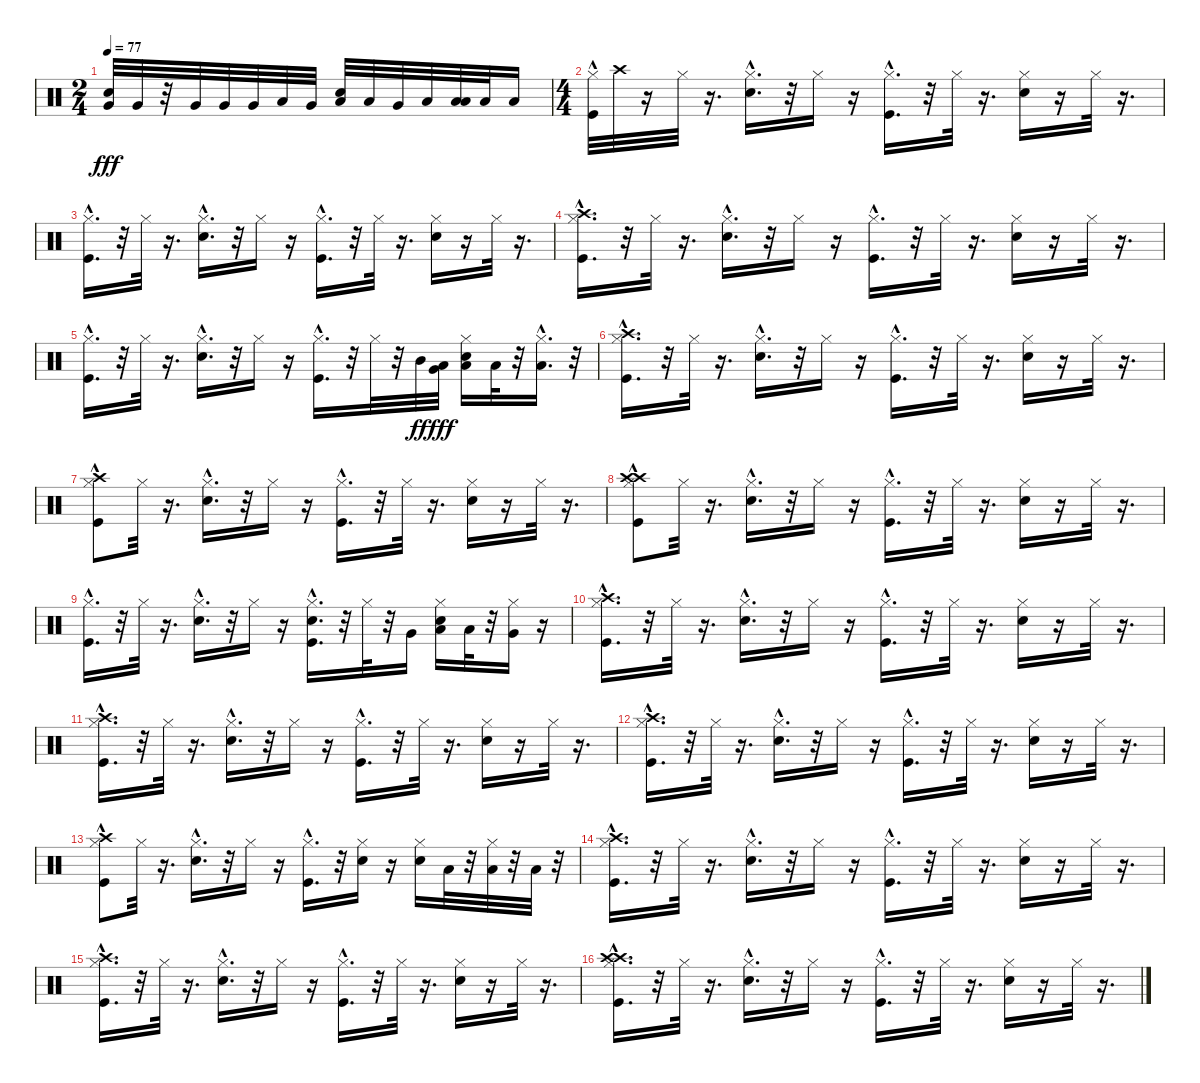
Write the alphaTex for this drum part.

\track "" {instrument percussion}
\staff {score}
\articulation defaults
\ts (2 4)
\tempo 77
\clef neutral
\ks c
("Electric Snare (hit)" "Very Low Tom (hit)").32{dy fff} "Very Low Tom (hit)".32 r.32 "Very Low Tom (hit)".32 "Very Low Tom (hit)".32 "Very Low Tom (hit)".32 "Low Floor Tom (hit)".32 "Very Low Tom (hit)".32 ("Low Floor Tom (hit)" "Electric Snare (hit)").32 "Low Floor Tom (hit)".32 "Very Low Tom (hit)".32 "Low Floor Tom (hit)".32 ("Low Floor Tom (hit)" "Low Floor Tom (hit)").32 "Low Floor Tom (hit)".32 "Low Floor Tom (hit)".16 |
\ts (4 4)
("Kick (hit)"{hac} "Hi-Hat (closed)").32 "Crash high (hit)".32 r.16 "Hi-Hat (closed)".32 r.16{d} ("Snare (hit) 2"{hac} "Hi-Hat (closed)").16{d} r.32 "Hi-Hat (closed)".16 r.16 ("Kick (hit)"{hac} "Hi-Hat (closed)").16{d} r.32 "Hi-Hat (closed)".32 r.16{d} ("Snare (hit) 2" "Hi-Hat (closed)").16 r.16 "Hi-Hat (closed)".32 r.16{d} |
("Kick (hit)"{hac} "Hi-Hat (closed)").16{d} r.32 "Hi-Hat (closed)".32 r.16{d} ("Snare (hit) 2"{hac} "Hi-Hat (closed)").16{d} r.32 "Hi-Hat (closed)".16 r.16 ("Kick (hit)"{hac} "Hi-Hat (closed)").16{d} r.32 "Hi-Hat (closed)".32 r.16{d} ("Snare (hit) 2" "Hi-Hat (closed)").16 r.16 "Hi-Hat (closed)".32 r.16{d} |
("Crash high (hit)"{hac} "Kick (hit)"{hac} "Hi-Hat (closed)").16{d} r.32 "Hi-Hat (closed)".32 r.16{d} ("Snare (hit) 2"{hac} "Hi-Hat (closed)").16{d} r.32 "Hi-Hat (closed)".16 r.16 ("Kick (hit)"{hac} "Hi-Hat (closed)").16{d} r.32 "Hi-Hat (closed)".32 r.16{d} ("Snare (hit) 2" "Hi-Hat (closed)").16 r.16 "Hi-Hat (closed)".32 r.16{d} |
("Kick (hit)"{hac} "Hi-Hat (closed)").16{d} r.32 "Hi-Hat (closed)".32 r.16{d} ("Snare (hit) 2"{hac} "Hi-Hat (closed)").16{d} r.32 "Hi-Hat (closed)".16 r.16 ("Kick (hit)"{hac} "Hi-Hat (closed)").16{d} r.32 "Hi-Hat (closed)".32 r.32 "Mid Tom (hit)".32{dy ff} ("Low Tom (hit)" "Very Low Tom (hit)").32{dy fff} ("Snare (hit) 2" "Hi-Hat (closed)" "Low Floor Tom (hit)").16 "Low Floor Tom (hit)".32 r.32 ("Hi-Hat (closed)" "Low Floor Tom (hit)"{hac}).16{d} r.32 |
("Kick (hit)"{hac} "Hi-Hat (closed)" "Crash high (hit)"{hac}).16{d} r.32 "Hi-Hat (closed)".32 r.16{d} ("Snare (hit) 2"{hac} "Hi-Hat (closed)").16{d} r.32 "Hi-Hat (closed)".16 r.16 ("Kick (hit)"{hac} "Hi-Hat (closed)").16{d} r.32 "Hi-Hat (closed)".32 r.16{d} ("Snare (hit) 2" "Hi-Hat (closed)").16 r.16 "Hi-Hat (closed)".32 r.16{d} |
("Crash high (hit)" "Kick (hit)"{hac} "Hi-Hat (closed)").8 "Hi-Hat (closed)".32 r.16{d} ("Snare (hit) 2"{hac} "Hi-Hat (closed)").16{d} r.32 "Hi-Hat (closed)".16 r.16 ("Kick (hit)"{hac} "Hi-Hat (closed)").16{d} r.32 "Hi-Hat (closed)".32 r.16{d} ("Snare (hit) 2" "Hi-Hat (closed)").16 r.16 "Hi-Hat (closed)".32 r.16{d} |
("Crash high (hit)" "Crash high (hit)" "Kick (hit)"{hac} "Hi-Hat (closed)").8 "Hi-Hat (closed)".32 r.16{d} ("Snare (hit) 2"{hac} "Hi-Hat (closed)").16{d} r.32 "Hi-Hat (closed)".16 r.16 ("Kick (hit)"{hac} "Hi-Hat (closed)").16{d} r.32 "Hi-Hat (closed)".32 r.16{d} ("Snare (hit) 2" "Hi-Hat (closed)").16 r.16 "Hi-Hat (closed)".32 r.16{d} |
("Kick (hit)"{hac} "Hi-Hat (closed)").16{d} r.32 "Hi-Hat (closed)".32 r.16{d} ("Snare (hit) 2"{hac} "Hi-Hat (closed)").16{d} r.32 "Hi-Hat (closed)".16 r.16 ("Electric Snare (hit)" "Kick (hit)"{hac} "Hi-Hat (closed)").16{d} r.32 "Hi-Hat (closed)".32 r.32 "Very Low Tom (hit)".16 ("Low Floor Tom (hit)" "Snare (hit) 2" "Hi-Hat (closed)").16 "Low Floor Tom (hit)".32 r.32 ("Hi-Hat (closed)" "Very Low Tom (hit)").16 r.16 |
("Kick (hit)"{hac} "Hi-Hat (closed)" "Crash high (hit)").16{d} r.32 "Hi-Hat (closed)".32 r.16{d} ("Snare (hit) 2"{hac} "Hi-Hat (closed)").16{d} r.32 "Hi-Hat (closed)".16 r.16 ("Kick (hit)"{hac} "Hi-Hat (closed)").16{d} r.32 "Hi-Hat (closed)".32 r.16{d} ("Snare (hit) 2" "Hi-Hat (closed)").16 r.16 "Hi-Hat (closed)".32 r.16{d} |
("Kick (hit)"{hac} "Hi-Hat (closed)" "Crash high (hit)").16{d} r.32 "Hi-Hat (closed)".32 r.16{d} ("Snare (hit) 2"{hac} "Hi-Hat (closed)").16{d} r.32 "Hi-Hat (closed)".16 r.16 ("Kick (hit)"{hac} "Hi-Hat (closed)").16{d} r.32 "Hi-Hat (closed)".32 r.16{d} ("Snare (hit) 2" "Hi-Hat (closed)").16 r.16 "Hi-Hat (closed)".32 r.16{d} |
("Kick (hit)"{hac} "Hi-Hat (closed)" "Crash high (hit)").16{d} r.32 "Hi-Hat (closed)".32 r.16{d} ("Snare (hit) 2"{hac} "Hi-Hat (closed)").16{d} r.32 "Hi-Hat (closed)".16 r.16 ("Kick (hit)"{hac} "Hi-Hat (closed)").16{d} r.32 "Hi-Hat (closed)".32 r.16{d} ("Snare (hit) 2" "Hi-Hat (closed)").16 r.16 "Hi-Hat (closed)".32 r.16{d} |
("Kick (hit)"{hac} "Hi-Hat (closed)" "Crash high (hit)").8 "Hi-Hat (closed)".32 r.16{d} ("Snare (hit) 2"{hac} "Hi-Hat (closed)").16{d} r.32 "Hi-Hat (closed)".16 r.16 ("Kick (hit)"{hac} "Hi-Hat (closed)").16{d} r.32 ("Hi-Hat (closed)" "Electric Snare (hit)").16 r.16 ("Snare (hit) 2" "Hi-Hat (closed)").16 "Low Floor Tom (hit)".32 r.32 ("Low Floor Tom (hit)" "Hi-Hat (closed)").32 r.32 "Low Floor Tom (hit)".32 r.32 |
("Crash high (hit)" "Kick (hit)"{hac} "Hi-Hat (closed)").16{d} r.32 "Hi-Hat (closed)".32 r.16{d} ("Snare (hit) 2"{hac} "Hi-Hat (closed)").16{d} r.32 "Hi-Hat (closed)".16 r.16 ("Kick (hit)"{hac} "Hi-Hat (closed)").16{d} r.32 "Hi-Hat (closed)".32 r.16{d} ("Snare (hit) 2" "Hi-Hat (closed)").16 r.16 "Hi-Hat (closed)".32 r.16{d} |
("Kick (hit)"{hac} "Hi-Hat (closed)" "Crash high (hit)").16{d} r.32 "Hi-Hat (closed)".32 r.16{d} ("Snare (hit) 2"{hac} "Hi-Hat (closed)").16{d} r.32 "Hi-Hat (closed)".16 r.16 ("Kick (hit)"{hac} "Hi-Hat (closed)").16{d} r.32 "Hi-Hat (closed)".32 r.16{d} ("Snare (hit) 2" "Hi-Hat (closed)").16 r.16 "Hi-Hat (closed)".32 r.16{d} |
("Crash high (hit)" "Crash high (hit)"{hac} "Kick (hit)"{hac} "Hi-Hat (closed)").16{d} r.32 "Hi-Hat (closed)".32 r.16{d} ("Snare (hit) 2"{hac} "Hi-Hat (closed)").16{d} r.32 "Hi-Hat (closed)".16 r.16 ("Kick (hit)"{hac} "Hi-Hat (closed)").16{d} r.32 "Hi-Hat (closed)".32 r.16{d} ("Snare (hit) 2" "Hi-Hat (closed)").16 r.16 "Hi-Hat (closed)".32 r.16{d}
